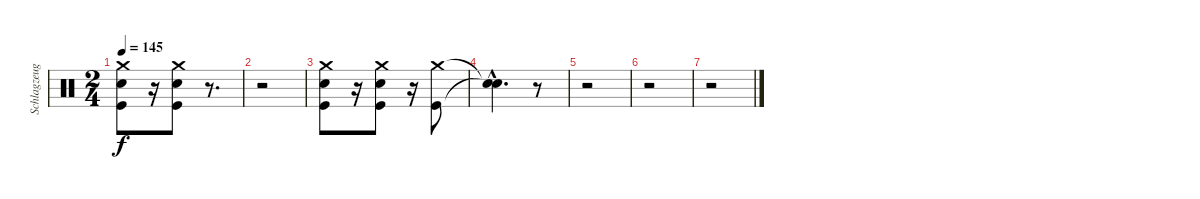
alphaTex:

\track ("Schlagzeug - Bela B." "Schlagzeug") {instrument percussion}
\staff {score}
\articulation defaults
\ts (2 4)
\tempo 145
\clef neutral
\ks c
("Kick (hit)" "Electric Snare (hit)" "Crash medium (hit)").8{dy f} r.16 ("Kick (hit)" "Crash medium (hit)" "Electric Snare (hit)").8 r.8{d} |
r.2 |
("Kick (hit)" "Electric Snare (hit)" "Crash medium (hit)").8 r.16 ("Kick (hit)" "Electric Snare (hit)" "Crash medium (hit)").8 r.16 ("Kick (hit)" "Crash medium (hit)").8 |
("Snare (hit)"{hac t} "Snare (hit)"{hac t}).4{d} r.8 |
r.2 |
r.2 |
r.2
